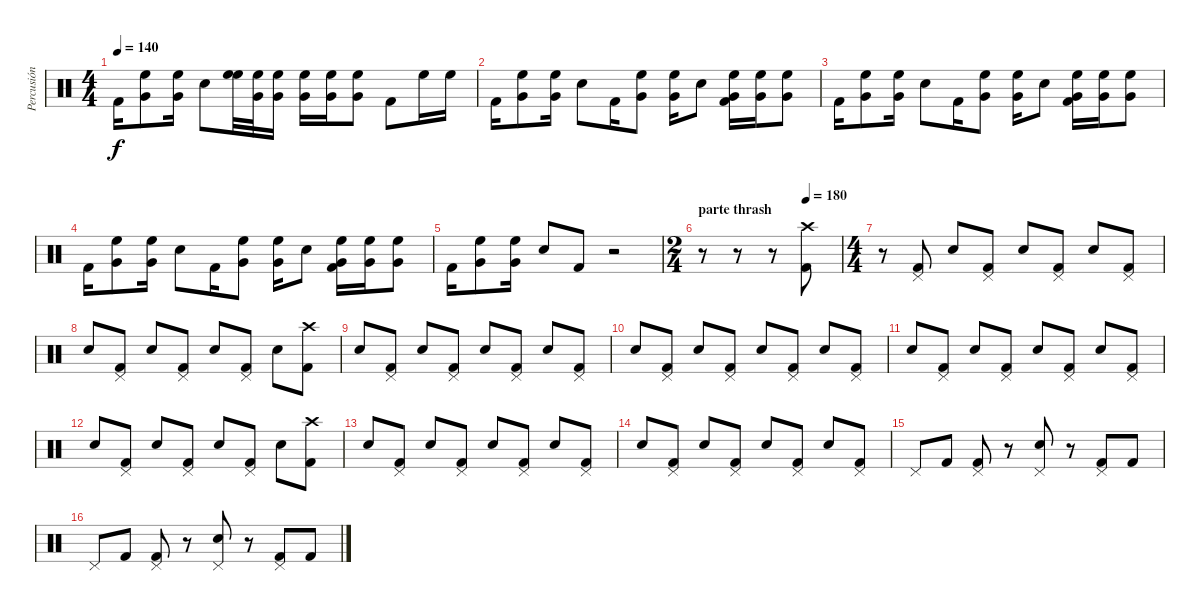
\track ("Percusión" "Percusión") {instrument percussion}
\staff {score}
\articulation defaults
\ts (4 4)
\tempo 140
\clef neutral
\ks c "Kick (hit) 2".16{dy f}
("Very Low Tom (hit)" "High Floor Tom (hit)").8 ("Very Low Tom (hit)" "High Floor Tom (hit)").16 "Electric Snare (hit)".8 ("High Floor Tom (hit)" "High Floor Tom (hit)").32 ("Very Low Tom (hit)" "High Floor Tom (hit)").32 ("Very Low Tom (hit)" "High Floor Tom (hit)").16 ("Very Low Tom (hit)" "High Floor Tom (hit)").16 ("Very Low Tom (hit)" "High Floor Tom (hit)").16 ("Very Low Tom (hit)" "High Floor Tom (hit)").8 "Kick (hit) 2".8 "High Floor Tom (hit)".16 "High Floor Tom (hit)".16 |
"Kick (hit) 2".16 ("Very Low Tom (hit)" "High Floor Tom (hit)").8 ("Very Low Tom (hit)" "High Floor Tom (hit)").16 "Electric Snare (hit)".8 "Kick (hit) 2".16 ("Very Low Tom (hit)" "High Floor Tom (hit)").8 ("Very Low Tom (hit)" "High Floor Tom (hit)").16 "Electric Snare (hit)".8 ("Very Low Tom (hit)" "High Floor Tom (hit)" "Kick (hit) 2").16 ("Very Low Tom (hit)" "High Floor Tom (hit)").16 ("Very Low Tom (hit)" "High Floor Tom (hit)").8 |
"Kick (hit) 2".16 ("Very Low Tom (hit)" "High Floor Tom (hit)").8 ("Very Low Tom (hit)" "High Floor Tom (hit)").16 "Electric Snare (hit)".8 "Kick (hit) 2".16 ("Very Low Tom (hit)" "High Floor Tom (hit)").8 ("Very Low Tom (hit)" "High Floor Tom (hit)").16 "Electric Snare (hit)".8 ("Very Low Tom (hit)" "High Floor Tom (hit)" "Kick (hit) 2").16 ("Very Low Tom (hit)" "High Floor Tom (hit)").16 ("Very Low Tom (hit)" "High Floor Tom (hit)").8 |
"Kick (hit) 2".16 ("Very Low Tom (hit)" "High Floor Tom (hit)").8 ("Very Low Tom (hit)" "High Floor Tom (hit)").16 "Electric Snare (hit)".8 "Kick (hit) 2".16 ("Very Low Tom (hit)" "High Floor Tom (hit)").8 ("Very Low Tom (hit)" "High Floor Tom (hit)").16 "Electric Snare (hit)".8 ("Very Low Tom (hit)" "High Floor Tom (hit)" "Kick (hit) 2").16 ("Very Low Tom (hit)" "High Floor Tom (hit)").16 ("Very Low Tom (hit)" "High Floor Tom (hit)").8 |
"Kick (hit) 2".16 ("Very Low Tom (hit)" "High Floor Tom (hit)").8 ("Very Low Tom (hit)" "High Floor Tom (hit)").16 "Electric Snare (hit)".8 "Kick (hit) 2".8 r.2 |
\ts (2 4)
\section ("" "parte thrash")
\tempo (180 0.75)
r.8 r.8 r.8 ("Crash high (hit)" "Kick (hit) 2").8 |
\ts (4 4)
r.8 ("Pedal Hi-Hat (hit)" "Kick (hit) 2").8 "Electric Snare (hit)".8 ("Pedal Hi-Hat (hit)" "Kick (hit) 2").8 "Electric Snare (hit)".8 ("Pedal Hi-Hat (hit)" "Kick (hit) 2").8 "Electric Snare (hit)".8 ("Pedal Hi-Hat (hit)" "Kick (hit) 2").8 |
"Electric Snare (hit)".8 ("Pedal Hi-Hat (hit)" "Kick (hit) 2").8 "Electric Snare (hit)".8 ("Pedal Hi-Hat (hit)" "Kick (hit) 2").8 "Electric Snare (hit)".8 ("Pedal Hi-Hat (hit)" "Kick (hit) 2").8 "Electric Snare (hit)".8 ("Crash high (hit)" "Kick (hit) 2").8 |
"Electric Snare (hit)".8 ("Pedal Hi-Hat (hit)" "Kick (hit) 2").8 "Electric Snare (hit)".8 ("Pedal Hi-Hat (hit)" "Kick (hit) 2").8 "Electric Snare (hit)".8 ("Pedal Hi-Hat (hit)" "Kick (hit) 2").8 "Electric Snare (hit)".8 ("Pedal Hi-Hat (hit)" "Kick (hit) 2").8 |
"Electric Snare (hit)".8 ("Pedal Hi-Hat (hit)" "Kick (hit) 2").8 "Electric Snare (hit)".8 ("Pedal Hi-Hat (hit)" "Kick (hit) 2").8 "Electric Snare (hit)".8 ("Pedal Hi-Hat (hit)" "Kick (hit) 2").8 "Electric Snare (hit)".8 ("Pedal Hi-Hat (hit)" "Kick (hit) 2").8 |
"Electric Snare (hit)".8 ("Pedal Hi-Hat (hit)" "Kick (hit) 2").8 "Electric Snare (hit)".8 ("Pedal Hi-Hat (hit)" "Kick (hit) 2").8 "Electric Snare (hit)".8 ("Pedal Hi-Hat (hit)" "Kick (hit) 2").8 "Electric Snare (hit)".8 ("Pedal Hi-Hat (hit)" "Kick (hit) 2").8 |
"Electric Snare (hit)".8 ("Pedal Hi-Hat (hit)" "Kick (hit) 2").8 "Electric Snare (hit)".8 ("Pedal Hi-Hat (hit)" "Kick (hit) 2").8 "Electric Snare (hit)".8 ("Pedal Hi-Hat (hit)" "Kick (hit) 2").8 "Electric Snare (hit)".8 ("Crash high (hit)" "Kick (hit) 2").8 |
"Electric Snare (hit)".8 ("Pedal Hi-Hat (hit)" "Kick (hit) 2").8 "Electric Snare (hit)".8 ("Pedal Hi-Hat (hit)" "Kick (hit) 2").8 "Electric Snare (hit)".8 ("Pedal Hi-Hat (hit)" "Kick (hit) 2").8 "Electric Snare (hit)".8 ("Pedal Hi-Hat (hit)" "Kick (hit) 2").8 |
"Electric Snare (hit)".8 ("Pedal Hi-Hat (hit)" "Kick (hit) 2").8 "Electric Snare (hit)".8 ("Pedal Hi-Hat (hit)" "Kick (hit) 2").8 "Electric Snare (hit)".8 ("Pedal Hi-Hat (hit)" "Kick (hit) 2").8 "Electric Snare (hit)".8 ("Pedal Hi-Hat (hit)" "Kick (hit) 2").8 |
"Pedal Hi-Hat (hit)".8 "Kick (hit) 2".8 ("Pedal Hi-Hat (hit)" "Kick (hit) 2").8 r.8 ("Pedal Hi-Hat (hit)" "Electric Snare (hit)").8 r.8 ("Pedal Hi-Hat (hit)" "Kick (hit) 2").8 "Kick (hit) 2".8 |
"Pedal Hi-Hat (hit)".8 "Kick (hit) 2".8 ("Pedal Hi-Hat (hit)" "Kick (hit) 2").8 r.8 ("Pedal Hi-Hat (hit)" "Electric Snare (hit)").8 r.8 ("Pedal Hi-Hat (hit)" "Kick (hit) 2").8 "Kick (hit) 2".8
